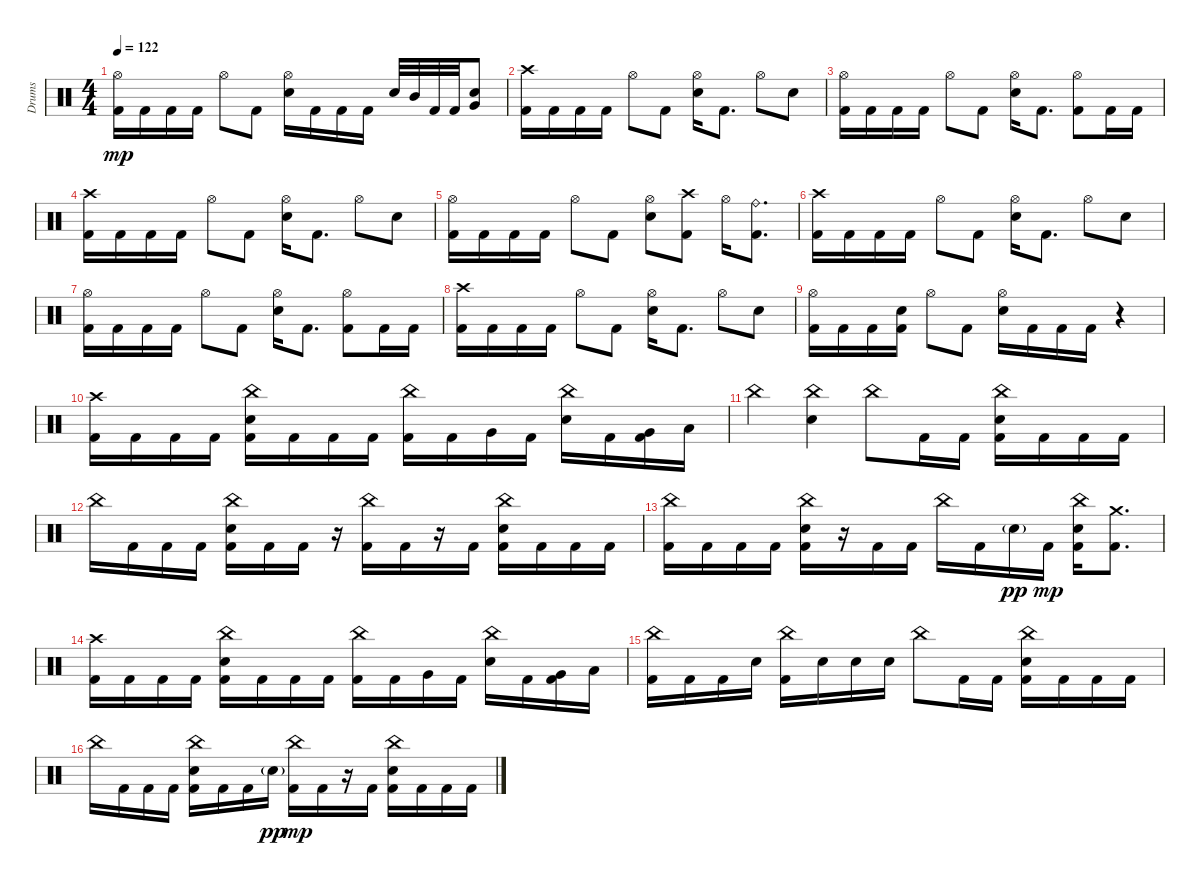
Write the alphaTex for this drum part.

\track ("Drums" "Drums") {instrument percussion}
\staff {score}
\articulation defaults
\ts (4 4)
\tempo 122
\clef neutral
\ks c
("Hi-Hat (open)" "Kick (hit) 2").16{dy mp} "Kick (hit) 2".16 "Kick (hit) 2".16 "Kick (hit) 2".16 "Hi-Hat (open)".8 "Kick (hit) 2".8 ("Hi-Hat (open)" "Electric Snare (hit)").16 "Kick (hit) 2".16 "Kick (hit) 2".16 "Kick (hit) 2".16 "Electric Snare (hit)".32 "Mid Tom (hit)".32 "Kick (hit) 2".32 "Kick (hit) 2".32 ("Electric Snare (hit)" "Very Low Tom (hit)").8 |
("Crash high (hit)" "Kick (hit) 2").16 "Kick (hit) 2".16 "Kick (hit) 2".16 "Kick (hit) 2".16 "Hi-Hat (open)".8 "Kick (hit) 2".8 ("Hi-Hat (open)" "Electric Snare (hit)").16 "Kick (hit) 2".8{d} "Hi-Hat (open)".8 "Electric Snare (hit)".8 |
("Hi-Hat (open)" "Kick (hit) 2").16 "Kick (hit) 2".16 "Kick (hit) 2".16 "Kick (hit) 2".16 "Hi-Hat (open)".8 "Kick (hit) 2".8 ("Hi-Hat (open)" "Electric Snare (hit)").16 "Kick (hit) 2".8{d} ("Hi-Hat (open)" "Kick (hit) 2").8 "Kick (hit) 2".16 "Kick (hit) 2".16 |
("Crash high (hit)" "Kick (hit) 2").16 "Kick (hit) 2".16 "Kick (hit) 2".16 "Kick (hit) 2".16 "Hi-Hat (open)".8 "Kick (hit) 2".8 ("Hi-Hat (open)" "Electric Snare (hit)").16 "Kick (hit) 2".8{d} "Hi-Hat (open)".8 "Electric Snare (hit)".8 |
("Hi-Hat (open)" "Kick (hit) 2").16 "Kick (hit) 2".16 "Kick (hit) 2".16 "Kick (hit) 2".16 "Hi-Hat (open)".8 "Kick (hit) 2".8 ("Hi-Hat (open)" "Electric Snare (hit)").8 ("Crash high (hit)" "Kick (hit) 2").8 "Hi-Hat (open)".16 ("Ride (bell)" "Kick (hit) 2").8{d} |
("Crash high (hit)" "Kick (hit) 2").16 "Kick (hit) 2".16 "Kick (hit) 2".16 "Kick (hit) 2".16 "Hi-Hat (open)".8 "Kick (hit) 2".8 ("Hi-Hat (open)" "Electric Snare (hit)").16 "Kick (hit) 2".8{d} "Hi-Hat (open)".8 "Electric Snare (hit)".8 |
("Hi-Hat (open)" "Kick (hit) 2").16 "Kick (hit) 2".16 "Kick (hit) 2".16 "Kick (hit) 2".16 "Hi-Hat (open)".8 "Kick (hit) 2".8 ("Hi-Hat (open)" "Electric Snare (hit)").16 "Kick (hit) 2".8{d} ("Hi-Hat (open)" "Kick (hit) 2").8 "Kick (hit) 2".16 "Kick (hit) 2".16 |
("Crash high (hit)" "Kick (hit) 2").16 "Kick (hit) 2".16 "Kick (hit) 2".16 "Kick (hit) 2".16 "Hi-Hat (open)".8 "Kick (hit) 2".8 ("Hi-Hat (open)" "Electric Snare (hit)").16 "Kick (hit) 2".8{d} "Hi-Hat (open)".8 "Electric Snare (hit)".8 |
("Hi-Hat (open)" "Kick (hit) 2").16 "Kick (hit) 2".16 "Kick (hit) 2".16 ("Electric Snare (hit)" "Kick (hit) 2").16 "Hi-Hat (open)".8 "Kick (hit) 2".8 ("Hi-Hat (open)" "Electric Snare (hit)").16 "Kick (hit) 2".16 "Kick (hit) 2".16 "Kick (hit) 2".16 r.4 |
("Crash high (hit)" "Kick (hit) 2").16 "Kick (hit) 2".16 "Kick (hit) 2".16 "Kick (hit) 2".16 ("China (hit)" "Electric Snare (hit)" "Kick (hit) 2").16 "Kick (hit) 2".16 "Kick (hit) 2".16 "Kick (hit) 2".16 ("China (hit)" "Kick (hit) 2").16 "Kick (hit) 2".16 "Very Low Tom (hit)".16 "Kick (hit) 2".16 ("China (hit)" "Electric Snare (hit)").16 "Kick (hit) 2".16 ("Very Low Tom (hit)" "Kick (hit) 2").16 "Low Floor Tom (hit)".16 |
"China (hit)".4 ("China (hit)" "Electric Snare (hit)").4 "China (hit)".8 "Kick (hit) 2".16 "Kick (hit) 2".16 ("China (hit)" "Electric Snare (hit)" "Kick (hit) 2").16 "Kick (hit) 2".16 "Kick (hit) 2".16 "Kick (hit) 2".16 |
"China (hit)".16 "Kick (hit) 2".16 "Kick (hit) 2".16 "Kick (hit) 2".16 ("China (hit)" "Electric Snare (hit)" "Kick (hit) 2").16 "Kick (hit) 2".16 "Kick (hit) 2".16 r.16 ("China (hit)" "Kick (hit) 2").16 "Kick (hit) 2".16 r.16 "Kick (hit) 2".16 ("China (hit)" "Electric Snare (hit)" "Kick (hit) 2").16 "Kick (hit) 2".16 "Kick (hit) 2".16 "Kick (hit) 2".16 |
("China (hit)" "Kick (hit) 2").16 "Kick (hit) 2".16 "Kick (hit) 2".16 "Kick (hit) 2".16 ("China (hit)" "Electric Snare (hit)" "Kick (hit) 2").16 r.16 "Kick (hit) 2".16 "Kick (hit) 2".16 "China (hit)".16 "Kick (hit) 2".16 "Electric Snare (hit)"{g}.16{dy pp} "Kick (hit) 2".16{dy mp} ("China (hit)" "Electric Snare (hit)" "Kick (hit) 2").16 ("Crash medium (hit)" "Kick (hit) 2").8{d} |
("Crash high (hit)" "Kick (hit) 2").16 "Kick (hit) 2".16 "Kick (hit) 2".16 "Kick (hit) 2".16 ("China (hit)" "Electric Snare (hit)" "Kick (hit) 2").16 "Kick (hit) 2".16 "Kick (hit) 2".16 "Kick (hit) 2".16 ("China (hit)" "Kick (hit) 2").16 "Kick (hit) 2".16 "Very Low Tom (hit)".16 "Kick (hit) 2".16 ("China (hit)" "Electric Snare (hit)").16 "Kick (hit) 2".16 ("Very Low Tom (hit)" "Kick (hit) 2").16 "Low Floor Tom (hit)".16 |
("China (hit)" "Kick (hit) 2").16 "Kick (hit) 2".16 "Kick (hit) 2".16 "Electric Snare (hit)".16 ("China (hit)" "Kick (hit) 2").16 "Electric Snare (hit)".16 "Electric Snare (hit)".16 "Electric Snare (hit)".16 "China (hit)".8 "Kick (hit) 2".16 "Kick (hit) 2".16 ("China (hit)" "Electric Snare (hit)" "Kick (hit) 2").16 "Kick (hit) 2".16 "Kick (hit) 2".16 "Kick (hit) 2".16 |
"China (hit)".16 "Kick (hit) 2".16 "Kick (hit) 2".16 "Kick (hit) 2".16 ("China (hit)" "Electric Snare (hit)" "Kick (hit) 2").16 "Kick (hit) 2".16 "Kick (hit) 2".16 "Electric Snare (hit)"{g}.16{dy pp} ("China (hit)" "Kick (hit) 2").16{dy mp} "Kick (hit) 2".16 r.16 "Kick (hit) 2".16 ("China (hit)" "Electric Snare (hit)" "Kick (hit) 2").16 "Kick (hit) 2".16 "Kick (hit) 2".16 "Kick (hit) 2".16
